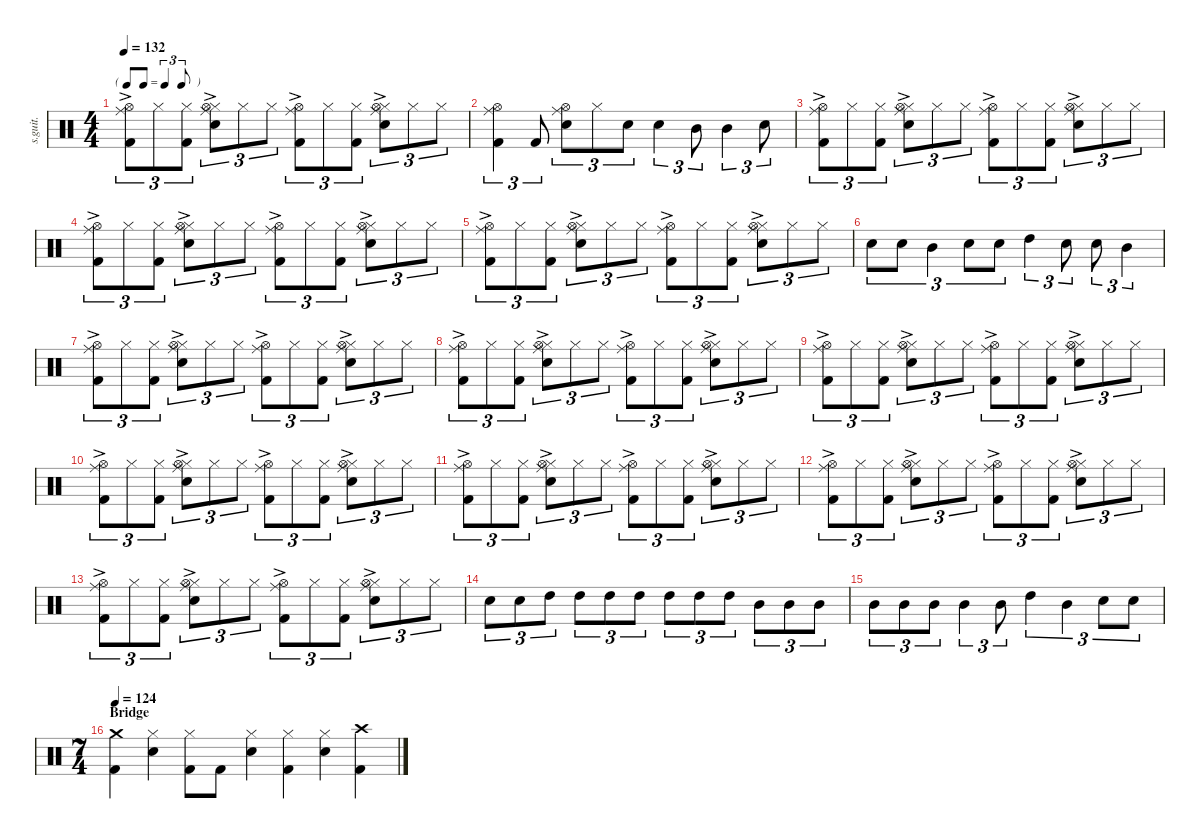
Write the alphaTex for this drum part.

\defaultSystemsLayout 4
\hideDynamics
\bracketExtendMode nobrackets
\track ("Nick Mason | Ludwig Drumkit | Drums" "s.guit.") {instrument percussion}
\staff {score}
\articulation defaults
\ts (4 4)
\tf triplet8th
\tempo 132
\clef neutral
\ks c
("Hi-Hat (open)"{ac} "Ride (middle)" "Kick (hit) 2").8{tu (3 2) dy f} "Hi-Hat (closed)".8{tu (3 2) dy mf} ("Hi-Hat (closed)" "Kick (hit) 2").8{tu (3 2)} ("Hi-Hat (closed)"{ac} "Hi-Hat (open)" "Ride (middle)" "Snare (hit) 2").8{tu (3 2) dy f} "Hi-Hat (closed)".8{tu (3 2)} "Hi-Hat (closed)".8{tu (3 2)} ("Hi-Hat (open)"{ac} "Ride (middle)" "Kick (hit) 2").8{tu (3 2)} "Hi-Hat (closed)".8{tu (3 2) dy mf} ("Hi-Hat (closed)" "Kick (hit) 2").8{tu (3 2)} ("Hi-Hat (closed)"{ac} "Hi-Hat (open)" "Ride (middle)" "Snare (hit) 2").8{tu (3 2) dy f} "Hi-Hat (closed)".8{tu (3 2)} "Hi-Hat (closed)".8{tu (3 2)} |
("Hi-Hat (open)" "Ride (middle)" "Kick (hit) 2").4{tu (3 2) dy mf} "Kick (hit) 2".8{tu (3 2)} ("Hi-Hat (open)" "Ride (middle)" "Snare (hit) 2").8{tu (3 2)} "Hi-Hat (closed)".8{tu (3 2)} "Snare (hit) 2".8{tu (3 2)} "Snare (hit) 2".4{tu (3 2)} "Mid Tom (hit)".8{tu (3 2)} "Mid Tom (hit)".4{tu (3 2)} "Snare (hit) 2".8{tu (3 2)} |
("Hi-Hat (open)"{ac} "Ride (middle)" "Kick (hit) 2").8{tu (3 2) dy f} "Hi-Hat (closed)".8{tu (3 2) dy mf} ("Hi-Hat (closed)" "Kick (hit) 2").8{tu (3 2)} ("Hi-Hat (closed)"{ac} "Hi-Hat (open)" "Ride (middle)" "Snare (hit) 2").8{tu (3 2) dy f} "Hi-Hat (closed)".8{tu (3 2)} "Hi-Hat (closed)".8{tu (3 2)} ("Hi-Hat (open)"{ac} "Ride (middle)" "Kick (hit) 2").8{tu (3 2)} "Hi-Hat (closed)".8{tu (3 2) dy mf} ("Hi-Hat (closed)" "Kick (hit) 2").8{tu (3 2)} ("Hi-Hat (closed)"{ac} "Hi-Hat (open)" "Ride (middle)" "Snare (hit) 2").8{tu (3 2) dy f} "Hi-Hat (closed)".8{tu (3 2)} "Hi-Hat (closed)".8{tu (3 2)} |
("Hi-Hat (open)"{ac} "Ride (middle)" "Kick (hit) 2").8{tu (3 2)} "Hi-Hat (closed)".8{tu (3 2) dy mf} ("Hi-Hat (closed)" "Kick (hit) 2").8{tu (3 2)} ("Hi-Hat (closed)"{ac} "Hi-Hat (open)" "Ride (middle)" "Snare (hit) 2").8{tu (3 2) dy f} "Hi-Hat (closed)".8{tu (3 2)} "Hi-Hat (closed)".8{tu (3 2)} ("Hi-Hat (open)"{ac} "Ride (middle)" "Kick (hit) 2").8{tu (3 2)} "Hi-Hat (closed)".8{tu (3 2) dy mf} ("Hi-Hat (closed)" "Kick (hit) 2").8{tu (3 2)} ("Hi-Hat (closed)"{ac} "Hi-Hat (open)" "Ride (middle)" "Snare (hit) 2").8{tu (3 2) dy f} "Hi-Hat (closed)".8{tu (3 2)} "Hi-Hat (closed)".8{tu (3 2)} |
("Hi-Hat (open)"{ac} "Ride (middle)" "Kick (hit) 2").8{tu (3 2)} "Hi-Hat (closed)".8{tu (3 2) dy mf} ("Hi-Hat (closed)" "Kick (hit) 2").8{tu (3 2)} ("Hi-Hat (closed)"{ac} "Hi-Hat (open)" "Ride (middle)" "Snare (hit) 2").8{tu (3 2) dy f} "Hi-Hat (closed)".8{tu (3 2)} "Hi-Hat (closed)".8{tu (3 2)} ("Hi-Hat (open)"{ac} "Ride (middle)" "Kick (hit) 2").8{tu (3 2)} "Hi-Hat (closed)".8{tu (3 2) dy mf} ("Hi-Hat (closed)" "Kick (hit) 2").8{tu (3 2)} ("Hi-Hat (closed)"{ac} "Hi-Hat (open)" "Ride (middle)" "Snare (hit) 2").8{tu (3 2) dy f} "Hi-Hat (closed)".8{tu (3 2)} "Hi-Hat (closed)".8{tu (3 2)} |
"Snare (hit) 2".8{tu (3 2) dy mf} "Snare (hit) 2".8{tu (3 2)} "Mid Tom (hit)".4{tu (3 2)} "Snare (hit) 2".8{tu (3 2)} "Snare (hit) 2".8{tu (3 2)} "High Tom (hit)".4{tu (3 2)} "Snare (hit) 2".8{tu (3 2)} "Snare (hit) 2".8{tu (3 2)} "Mid Tom (hit)".4{tu (3 2)} |
("Hi-Hat (open)"{ac} "Ride (middle)" "Kick (hit) 2").8{tu (3 2) dy f} "Hi-Hat (closed)".8{tu (3 2) dy mf} ("Hi-Hat (closed)" "Kick (hit) 2").8{tu (3 2)} ("Hi-Hat (closed)"{ac} "Hi-Hat (open)" "Ride (middle)" "Snare (hit) 2").8{tu (3 2) dy f} "Hi-Hat (closed)".8{tu (3 2)} "Hi-Hat (closed)".8{tu (3 2)} ("Hi-Hat (open)"{ac} "Ride (middle)" "Kick (hit) 2").8{tu (3 2)} "Hi-Hat (closed)".8{tu (3 2) dy mf} ("Hi-Hat (closed)" "Kick (hit) 2").8{tu (3 2)} ("Hi-Hat (closed)"{ac} "Hi-Hat (open)" "Ride (middle)" "Snare (hit) 2").8{tu (3 2) dy f} "Hi-Hat (closed)".8{tu (3 2)} "Hi-Hat (closed)".8{tu (3 2)} |
("Hi-Hat (open)"{ac} "Ride (middle)" "Kick (hit) 2").8{tu (3 2)} "Hi-Hat (closed)".8{tu (3 2) dy mf} ("Hi-Hat (closed)" "Kick (hit) 2").8{tu (3 2)} ("Hi-Hat (closed)"{ac} "Hi-Hat (open)" "Ride (middle)" "Snare (hit) 2").8{tu (3 2) dy f} "Hi-Hat (closed)".8{tu (3 2)} "Hi-Hat (closed)".8{tu (3 2)} ("Hi-Hat (open)"{ac} "Ride (middle)" "Kick (hit) 2").8{tu (3 2)} "Hi-Hat (closed)".8{tu (3 2) dy mf} ("Hi-Hat (closed)" "Kick (hit) 2").8{tu (3 2)} ("Hi-Hat (closed)"{ac} "Hi-Hat (open)" "Ride (middle)" "Snare (hit) 2").8{tu (3 2) dy f} "Hi-Hat (closed)".8{tu (3 2)} "Hi-Hat (closed)".8{tu (3 2)} |
("Hi-Hat (open)"{ac} "Ride (middle)" "Kick (hit) 2").8{tu (3 2)} "Hi-Hat (closed)".8{tu (3 2) dy mf} ("Hi-Hat (closed)" "Kick (hit) 2").8{tu (3 2)} ("Hi-Hat (closed)"{ac} "Hi-Hat (open)" "Ride (middle)" "Snare (hit) 2").8{tu (3 2) dy f} "Hi-Hat (closed)".8{tu (3 2)} "Hi-Hat (closed)".8{tu (3 2)} ("Hi-Hat (open)"{ac} "Ride (middle)" "Kick (hit) 2").8{tu (3 2)} "Hi-Hat (closed)".8{tu (3 2) dy mf} ("Hi-Hat (closed)" "Kick (hit) 2").8{tu (3 2)} ("Hi-Hat (closed)"{ac} "Hi-Hat (open)" "Ride (middle)" "Snare (hit) 2").8{tu (3 2) dy f} "Hi-Hat (closed)".8{tu (3 2)} "Hi-Hat (closed)".8{tu (3 2)} |
("Hi-Hat (open)"{ac} "Ride (middle)" "Kick (hit) 2").8{tu (3 2)} "Hi-Hat (closed)".8{tu (3 2) dy mf} ("Hi-Hat (closed)" "Kick (hit) 2").8{tu (3 2)} ("Hi-Hat (closed)"{ac} "Hi-Hat (open)" "Ride (middle)" "Snare (hit) 2").8{tu (3 2) dy f} "Hi-Hat (closed)".8{tu (3 2)} "Hi-Hat (closed)".8{tu (3 2)} ("Hi-Hat (open)"{ac} "Ride (middle)" "Kick (hit) 2").8{tu (3 2)} "Hi-Hat (closed)".8{tu (3 2) dy mf} ("Hi-Hat (closed)" "Kick (hit) 2").8{tu (3 2)} ("Hi-Hat (closed)"{ac} "Hi-Hat (open)" "Ride (middle)" "Snare (hit) 2").8{tu (3 2) dy f} "Hi-Hat (closed)".8{tu (3 2)} "Hi-Hat (closed)".8{tu (3 2)} |
("Hi-Hat (open)"{ac} "Ride (middle)" "Kick (hit) 2").8{tu (3 2)} "Hi-Hat (closed)".8{tu (3 2) dy mf} ("Hi-Hat (closed)" "Kick (hit) 2").8{tu (3 2)} ("Hi-Hat (closed)"{ac} "Hi-Hat (open)" "Ride (middle)" "Snare (hit) 2").8{tu (3 2) dy f} "Hi-Hat (closed)".8{tu (3 2)} "Hi-Hat (closed)".8{tu (3 2)} ("Hi-Hat (open)"{ac} "Ride (middle)" "Kick (hit) 2").8{tu (3 2)} "Hi-Hat (closed)".8{tu (3 2) dy mf} ("Hi-Hat (closed)" "Kick (hit) 2").8{tu (3 2)} ("Hi-Hat (closed)"{ac} "Hi-Hat (open)" "Ride (middle)" "Snare (hit) 2").8{tu (3 2) dy f} "Hi-Hat (closed)".8{tu (3 2)} "Hi-Hat (closed)".8{tu (3 2)} |
("Hi-Hat (open)"{ac} "Ride (middle)" "Kick (hit) 2").8{tu (3 2)} "Hi-Hat (closed)".8{tu (3 2) dy mf} ("Hi-Hat (closed)" "Kick (hit) 2").8{tu (3 2)} ("Hi-Hat (closed)"{ac} "Hi-Hat (open)" "Ride (middle)" "Snare (hit) 2").8{tu (3 2) dy f} "Hi-Hat (closed)".8{tu (3 2)} "Hi-Hat (closed)".8{tu (3 2)} ("Hi-Hat (open)"{ac} "Ride (middle)" "Kick (hit) 2").8{tu (3 2)} "Hi-Hat (closed)".8{tu (3 2) dy mf} ("Hi-Hat (closed)" "Kick (hit) 2").8{tu (3 2)} ("Hi-Hat (closed)"{ac} "Hi-Hat (open)" "Ride (middle)" "Snare (hit) 2").8{tu (3 2) dy f} "Hi-Hat (closed)".8{tu (3 2)} "Hi-Hat (closed)".8{tu (3 2)} |
("Hi-Hat (open)"{ac} "Ride (middle)" "Kick (hit) 2").8{tu (3 2)} "Hi-Hat (closed)".8{tu (3 2) dy mf} ("Hi-Hat (closed)" "Kick (hit) 2").8{tu (3 2)} ("Hi-Hat (closed)"{ac} "Hi-Hat (open)" "Ride (middle)" "Snare (hit) 2").8{tu (3 2) dy f} "Hi-Hat (closed)".8{tu (3 2)} "Hi-Hat (closed)".8{tu (3 2)} ("Hi-Hat (open)"{ac} "Ride (middle)" "Kick (hit) 2").8{tu (3 2)} "Hi-Hat (closed)".8{tu (3 2) dy mf} ("Hi-Hat (closed)" "Kick (hit) 2").8{tu (3 2)} ("Hi-Hat (closed)"{ac} "Hi-Hat (open)" "Ride (middle)" "Snare (hit) 2").8{tu (3 2) dy f} "Hi-Hat (closed)".8{tu (3 2)} "Hi-Hat (closed)".8{tu (3 2)} |
"Snare (hit) 2".8{tu (3 2) dy mf} "Snare (hit) 2".8{tu (3 2)} "High Tom (hit)".8{tu (3 2)} "High Tom (hit)".8{tu (3 2)} "High Tom (hit)".8{tu (3 2)} "High Tom (hit)".8{tu (3 2)} "High Tom (hit)".8{tu (3 2)} "High Tom (hit)".8{tu (3 2)} "High Tom (hit)".8{tu (3 2)} "Mid Tom (hit)".8{tu (3 2)} "Mid Tom (hit)".8{tu (3 2)} "Mid Tom (hit)".8{tu (3 2)} |
"Mid Tom (hit)".8{tu (3 2)} "Mid Tom (hit)".8{tu (3 2)} "Mid Tom (hit)".8{tu (3 2)} "Mid Tom (hit)".4{tu (3 2)} "Mid Tom (hit)".8{tu (3 2)} "High Tom (hit)".4{tu (3 2)} "Mid Tom (hit)".4{tu (3 2)} "Snare (hit) 2".8{tu (3 2)} "Snare (hit) 2".8{tu (3 2)} |
\ts (7 4)
\beaming (8 2 2 2 2)
\section ("" "Bridge")
\tempo 124
("Crash medium (hit)" "Kick (hit) 2").4 ("Hi-Hat (closed)" "Snare (hit) 2").4 ("Hi-Hat (closed)" "Kick (hit) 2").8 "Kick (hit) 2".8 ("Hi-Hat (closed)" "Snare (hit) 2").4 ("Hi-Hat (closed)" "Kick (hit) 2").4 ("Hi-Hat (closed)" "Snare (hit) 2").4 ("Crash high (hit)" "Kick (hit) 2").4
